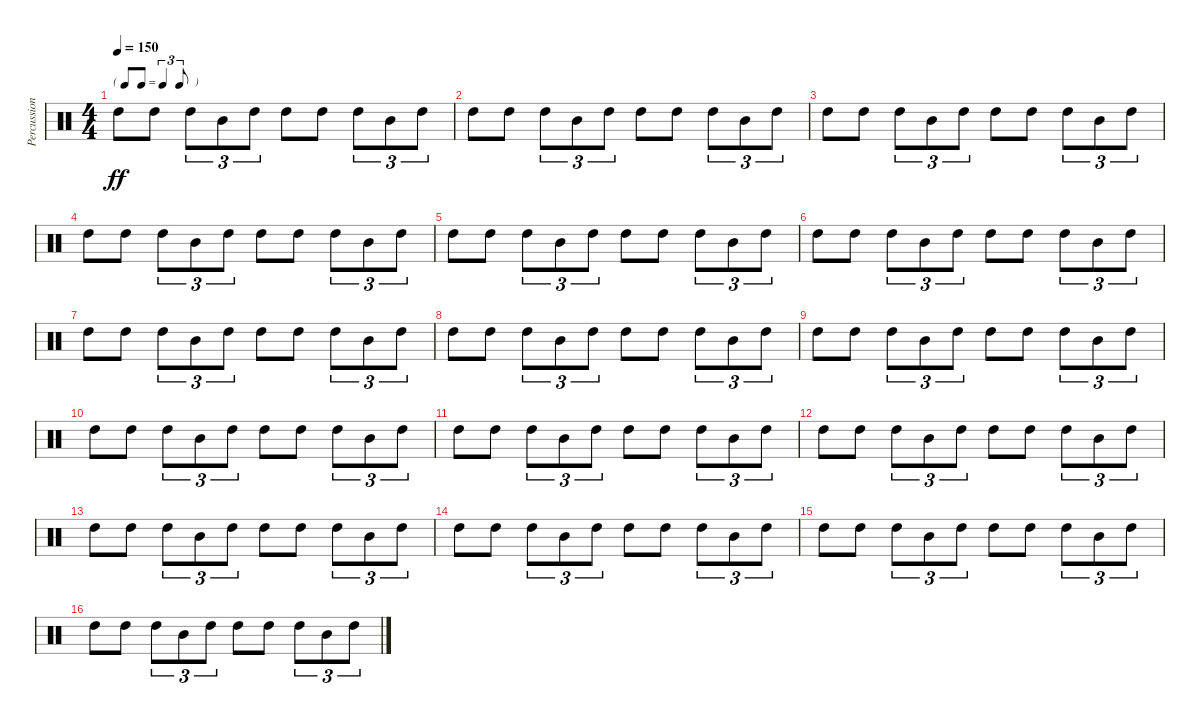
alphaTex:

\track ("Percussion" "Percussion") {instrument percussion}
\staff {score}
\articulation defaults
\ts (4 4)
\tf triplet8th
\tempo 150
\clef neutral
\ks c "High Tom (hit)".8{dy ff} "High Tom (hit)".8 "High Tom (hit)".8{tu (3 2)} "Mid Tom (hit)".8{tu (3 2)} "High Tom (hit)".8{tu (3 2)} "High Tom (hit)".8 "High Tom (hit)".8 "High Tom (hit)".8{tu (3 2)} "Mid Tom (hit)".8{tu (3 2)} "High Tom (hit)".8{tu (3 2)}
|
"High Tom (hit)".8 "High Tom (hit)".8 "High Tom (hit)".8{tu (3 2)} "Mid Tom (hit)".8{tu (3 2)} "High Tom (hit)".8{tu (3 2)} "High Tom (hit)".8 "High Tom (hit)".8 "High Tom (hit)".8{tu (3 2)} "Mid Tom (hit)".8{tu (3 2)} "High Tom (hit)".8{tu (3 2)} |
"High Tom (hit)".8 "High Tom (hit)".8 "High Tom (hit)".8{tu (3 2)} "Mid Tom (hit)".8{tu (3 2)} "High Tom (hit)".8{tu (3 2)} "High Tom (hit)".8 "High Tom (hit)".8 "High Tom (hit)".8{tu (3 2)} "Mid Tom (hit)".8{tu (3 2)} "High Tom (hit)".8{tu (3 2)} |
"High Tom (hit)".8 "High Tom (hit)".8 "High Tom (hit)".8{tu (3 2)} "Mid Tom (hit)".8{tu (3 2)} "High Tom (hit)".8{tu (3 2)} "High Tom (hit)".8 "High Tom (hit)".8 "High Tom (hit)".8{tu (3 2)} "Mid Tom (hit)".8{tu (3 2)} "High Tom (hit)".8{tu (3 2)} |
"High Tom (hit)".8 "High Tom (hit)".8 "High Tom (hit)".8{tu (3 2)} "Mid Tom (hit)".8{tu (3 2)} "High Tom (hit)".8{tu (3 2)} "High Tom (hit)".8 "High Tom (hit)".8 "High Tom (hit)".8{tu (3 2)} "Mid Tom (hit)".8{tu (3 2)} "High Tom (hit)".8{tu (3 2)} |
"High Tom (hit)".8 "High Tom (hit)".8 "High Tom (hit)".8{tu (3 2)} "Mid Tom (hit)".8{tu (3 2)} "High Tom (hit)".8{tu (3 2)} "High Tom (hit)".8 "High Tom (hit)".8 "High Tom (hit)".8{tu (3 2)} "Mid Tom (hit)".8{tu (3 2)} "High Tom (hit)".8{tu (3 2)} |
"High Tom (hit)".8 "High Tom (hit)".8 "High Tom (hit)".8{tu (3 2)} "Mid Tom (hit)".8{tu (3 2)} "High Tom (hit)".8{tu (3 2)} "High Tom (hit)".8 "High Tom (hit)".8 "High Tom (hit)".8{tu (3 2)} "Mid Tom (hit)".8{tu (3 2)} "High Tom (hit)".8{tu (3 2)} |
"High Tom (hit)".8 "High Tom (hit)".8 "High Tom (hit)".8{tu (3 2)} "Mid Tom (hit)".8{tu (3 2)} "High Tom (hit)".8{tu (3 2)} "High Tom (hit)".8 "High Tom (hit)".8 "High Tom (hit)".8{tu (3 2)} "Mid Tom (hit)".8{tu (3 2)} "High Tom (hit)".8{tu (3 2)} |
"High Tom (hit)".8 "High Tom (hit)".8 "High Tom (hit)".8{tu (3 2)} "Mid Tom (hit)".8{tu (3 2)} "High Tom (hit)".8{tu (3 2)} "High Tom (hit)".8 "High Tom (hit)".8 "High Tom (hit)".8{tu (3 2)} "Mid Tom (hit)".8{tu (3 2)} "High Tom (hit)".8{tu (3 2)} |
"High Tom (hit)".8 "High Tom (hit)".8 "High Tom (hit)".8{tu (3 2)} "Mid Tom (hit)".8{tu (3 2)} "High Tom (hit)".8{tu (3 2)} "High Tom (hit)".8 "High Tom (hit)".8 "High Tom (hit)".8{tu (3 2)} "Mid Tom (hit)".8{tu (3 2)} "High Tom (hit)".8{tu (3 2)} |
"High Tom (hit)".8 "High Tom (hit)".8 "High Tom (hit)".8{tu (3 2)} "Mid Tom (hit)".8{tu (3 2)} "High Tom (hit)".8{tu (3 2)} "High Tom (hit)".8 "High Tom (hit)".8 "High Tom (hit)".8{tu (3 2)} "Mid Tom (hit)".8{tu (3 2)} "High Tom (hit)".8{tu (3 2)} |
"High Tom (hit)".8 "High Tom (hit)".8 "High Tom (hit)".8{tu (3 2)} "Mid Tom (hit)".8{tu (3 2)} "High Tom (hit)".8{tu (3 2)} "High Tom (hit)".8 "High Tom (hit)".8 "High Tom (hit)".8{tu (3 2)} "Mid Tom (hit)".8{tu (3 2)} "High Tom (hit)".8{tu (3 2)} |
"High Tom (hit)".8 "High Tom (hit)".8 "High Tom (hit)".8{tu (3 2)} "Mid Tom (hit)".8{tu (3 2)} "High Tom (hit)".8{tu (3 2)} "High Tom (hit)".8 "High Tom (hit)".8 "High Tom (hit)".8{tu (3 2)} "Mid Tom (hit)".8{tu (3 2)} "High Tom (hit)".8{tu (3 2)} |
"High Tom (hit)".8 "High Tom (hit)".8 "High Tom (hit)".8{tu (3 2)} "Mid Tom (hit)".8{tu (3 2)} "High Tom (hit)".8{tu (3 2)} "High Tom (hit)".8 "High Tom (hit)".8 "High Tom (hit)".8{tu (3 2)} "Mid Tom (hit)".8{tu (3 2)} "High Tom (hit)".8{tu (3 2)} |
"High Tom (hit)".8 "High Tom (hit)".8 "High Tom (hit)".8{tu (3 2)} "Mid Tom (hit)".8{tu (3 2)} "High Tom (hit)".8{tu (3 2)} "High Tom (hit)".8 "High Tom (hit)".8 "High Tom (hit)".8{tu (3 2)} "Mid Tom (hit)".8{tu (3 2)} "High Tom (hit)".8{tu (3 2)} |
"High Tom (hit)".8 "High Tom (hit)".8 "High Tom (hit)".8{tu (3 2)} "Mid Tom (hit)".8{tu (3 2)} "High Tom (hit)".8{tu (3 2)} "High Tom (hit)".8 "High Tom (hit)".8 "High Tom (hit)".8{tu (3 2)} "Mid Tom (hit)".8{tu (3 2)} "High Tom (hit)".8{tu (3 2)}
